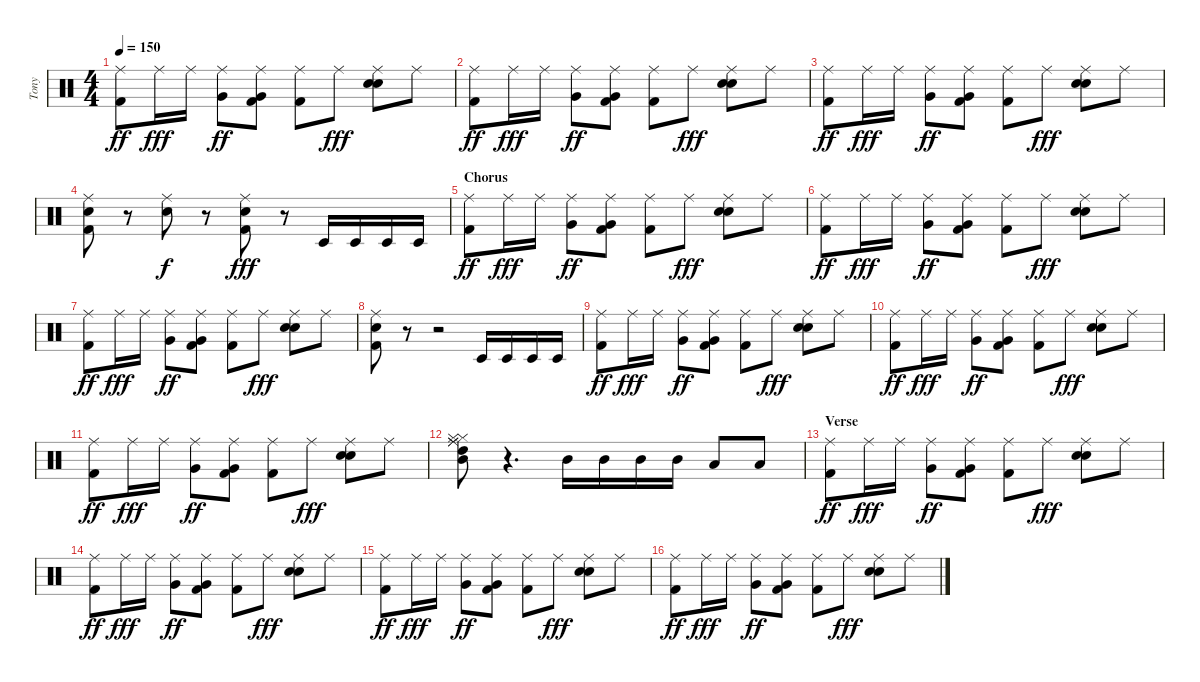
\track ("Tony" "Tony") {instrument percussion}
\staff {score}
\articulation defaults
\ts (4 4)
\tempo 150
\clef neutral
\ks c
("Ride (middle)" "Kick (hit) 2").8{dy ff} "Ride (middle)".16{dy fff} "Ride (middle)".16 ("Ride (middle)" "Very Low Tom (hit)").8{dy ff} ("Ride (middle)" "Very Low Tom (hit)" "Kick (hit) 2").8 ("Ride (middle)" "Kick (hit) 2").8 "Ride (middle)".8{dy fff} ("Ride (middle)" "Electric Snare (hit)" "Snare (hit) 2").8 "Ride (middle)".8 |
("Ride (middle)" "Kick (hit) 2").8{dy ff} "Ride (middle)".16{dy fff} "Ride (middle)".16 ("Ride (middle)" "Very Low Tom (hit)").8{dy ff} ("Ride (middle)" "Very Low Tom (hit)" "Kick (hit) 2").8 ("Ride (middle)" "Kick (hit) 2").8 "Ride (middle)".8{dy fff} ("Ride (middle)" "Electric Snare (hit)" "Snare (hit) 2").8 "Ride (middle)".8 |
("Ride (middle)" "Kick (hit) 2").8{dy ff} "Ride (middle)".16{dy fff} "Ride (middle)".16 ("Ride (middle)" "Very Low Tom (hit)").8{dy ff} ("Ride (middle)" "Very Low Tom (hit)" "Kick (hit) 2").8 ("Ride (middle)" "Kick (hit) 2").8 "Ride (middle)".8{dy fff} ("Ride (middle)" "Electric Snare (hit)" "Snare (hit) 2").8 "Ride (middle)".8 |
("Ride (middle)" "Electric Snare (hit)" "Kick (hit) 2").8 r.8 ("Ride (middle)" "Electric Snare (hit)").8{dy f} r.8 ("Ride (middle)" "Electric Snare (hit)" "Kick (hit) 2").8{dy fff} r.8 "Timbale low (hit)".16 "Timbale low (hit)".16 "Timbale low (hit)".16 "Timbale low (hit)".16 |
\section ("" "Chorus")
("Ride (middle)" "Kick (hit) 2").8{dy ff} "Ride (middle)".16{dy fff} "Ride (middle)".16 ("Ride (middle)" "Very Low Tom (hit)").8{dy ff} ("Ride (middle)" "Very Low Tom (hit)" "Kick (hit) 2").8 ("Ride (middle)" "Kick (hit) 2").8 "Ride (middle)".8{dy fff} ("Ride (middle)" "Electric Snare (hit)" "Snare (hit) 2").8 "Ride (middle)".8 |
("Ride (middle)" "Kick (hit) 2").8{dy ff} "Ride (middle)".16{dy fff} "Ride (middle)".16 ("Ride (middle)" "Very Low Tom (hit)").8{dy ff} ("Ride (middle)" "Very Low Tom (hit)" "Kick (hit) 2").8 ("Ride (middle)" "Kick (hit) 2").8 "Ride (middle)".8{dy fff} ("Ride (middle)" "Electric Snare (hit)" "Snare (hit) 2").8 "Ride (middle)".8 |
("Ride (middle)" "Kick (hit) 2").8{dy ff} "Ride (middle)".16{dy fff} "Ride (middle)".16 ("Ride (middle)" "Very Low Tom (hit)").8{dy ff} ("Ride (middle)" "Very Low Tom (hit)" "Kick (hit) 2").8 ("Ride (middle)" "Kick (hit) 2").8 "Ride (middle)".8{dy fff} ("Ride (middle)" "Electric Snare (hit)" "Snare (hit) 2").8 "Ride (middle)".8 |
("Ride (middle)" "Electric Snare (hit)" "Kick (hit) 2").8 r.8 r.2 "Timbale low (hit)".16 "Timbale low (hit)".16 "Timbale low (hit)".16 "Timbale low (hit)".16 |
("Ride (middle)" "Kick (hit) 2").8{dy ff} "Ride (middle)".16{dy fff} "Ride (middle)".16 ("Ride (middle)" "Very Low Tom (hit)").8{dy ff} ("Ride (middle)" "Very Low Tom (hit)" "Kick (hit) 2").8 ("Ride (middle)" "Kick (hit) 2").8 "Ride (middle)".8{dy fff} ("Ride (middle)" "Electric Snare (hit)" "Snare (hit) 2").8 "Ride (middle)".8 |
("Ride (middle)" "Kick (hit) 2").8{dy ff} "Ride (middle)".16{dy fff} "Ride (middle)".16 ("Ride (middle)" "Very Low Tom (hit)").8{dy ff} ("Ride (middle)" "Very Low Tom (hit)" "Kick (hit) 2").8 ("Ride (middle)" "Kick (hit) 2").8 "Ride (middle)".8{dy fff} ("Ride (middle)" "Electric Snare (hit)" "Snare (hit) 2").8 "Ride (middle)".8 |
("Ride (middle)" "Kick (hit) 2").8{dy ff} "Ride (middle)".16{dy fff} "Ride (middle)".16 ("Ride (middle)" "Very Low Tom (hit)").8{dy ff} ("Ride (middle)" "Very Low Tom (hit)" "Kick (hit) 2").8 ("Ride (middle)" "Kick (hit) 2").8 "Ride (middle)".8{dy fff} ("Ride (middle)" "Electric Snare (hit)" "Snare (hit) 2").8 "Ride (middle)".8 |
("Ride (middle)" "High Tom (hit)" "Mid Tom (hit)" "Hi-Hat (closed)" "Ride (middle)" "Hi-Hat (closed)").8 r.4{d} "Mid Tom (hit)".16 "Mid Tom (hit)".16 "Mid Tom (hit)".16 "Mid Tom (hit)".16 "Low Tom (hit)".8 "Low Tom (hit)".8 |
\section ("" "Verse")
("Ride (middle)" "Kick (hit) 2").8{dy ff} "Ride (middle)".16{dy fff} "Ride (middle)".16 ("Ride (middle)" "Very Low Tom (hit)").8{dy ff} ("Ride (middle)" "Very Low Tom (hit)" "Kick (hit) 2").8 ("Ride (middle)" "Kick (hit) 2").8 "Ride (middle)".8{dy fff} ("Ride (middle)" "Electric Snare (hit)" "Snare (hit) 2").8 "Ride (middle)".8 |
("Ride (middle)" "Kick (hit) 2").8{dy ff} "Ride (middle)".16{dy fff} "Ride (middle)".16 ("Ride (middle)" "Very Low Tom (hit)").8{dy ff} ("Ride (middle)" "Very Low Tom (hit)" "Kick (hit) 2").8 ("Ride (middle)" "Kick (hit) 2").8 "Ride (middle)".8{dy fff} ("Ride (middle)" "Electric Snare (hit)" "Snare (hit) 2").8 "Ride (middle)".8 |
("Ride (middle)" "Kick (hit) 2").8{dy ff} "Ride (middle)".16{dy fff} "Ride (middle)".16 ("Ride (middle)" "Very Low Tom (hit)").8{dy ff} ("Ride (middle)" "Very Low Tom (hit)" "Kick (hit) 2").8 ("Ride (middle)" "Kick (hit) 2").8 "Ride (middle)".8{dy fff} ("Ride (middle)" "Electric Snare (hit)" "Snare (hit) 2").8 "Ride (middle)".8 |
("Ride (middle)" "Kick (hit) 2").8{dy ff} "Ride (middle)".16{dy fff} "Ride (middle)".16 ("Ride (middle)" "Very Low Tom (hit)").8{dy ff} ("Ride (middle)" "Very Low Tom (hit)" "Kick (hit) 2").8 ("Ride (middle)" "Kick (hit) 2").8 "Ride (middle)".8{dy fff} ("Ride (middle)" "Electric Snare (hit)" "Snare (hit) 2").8 "Ride (middle)".8
